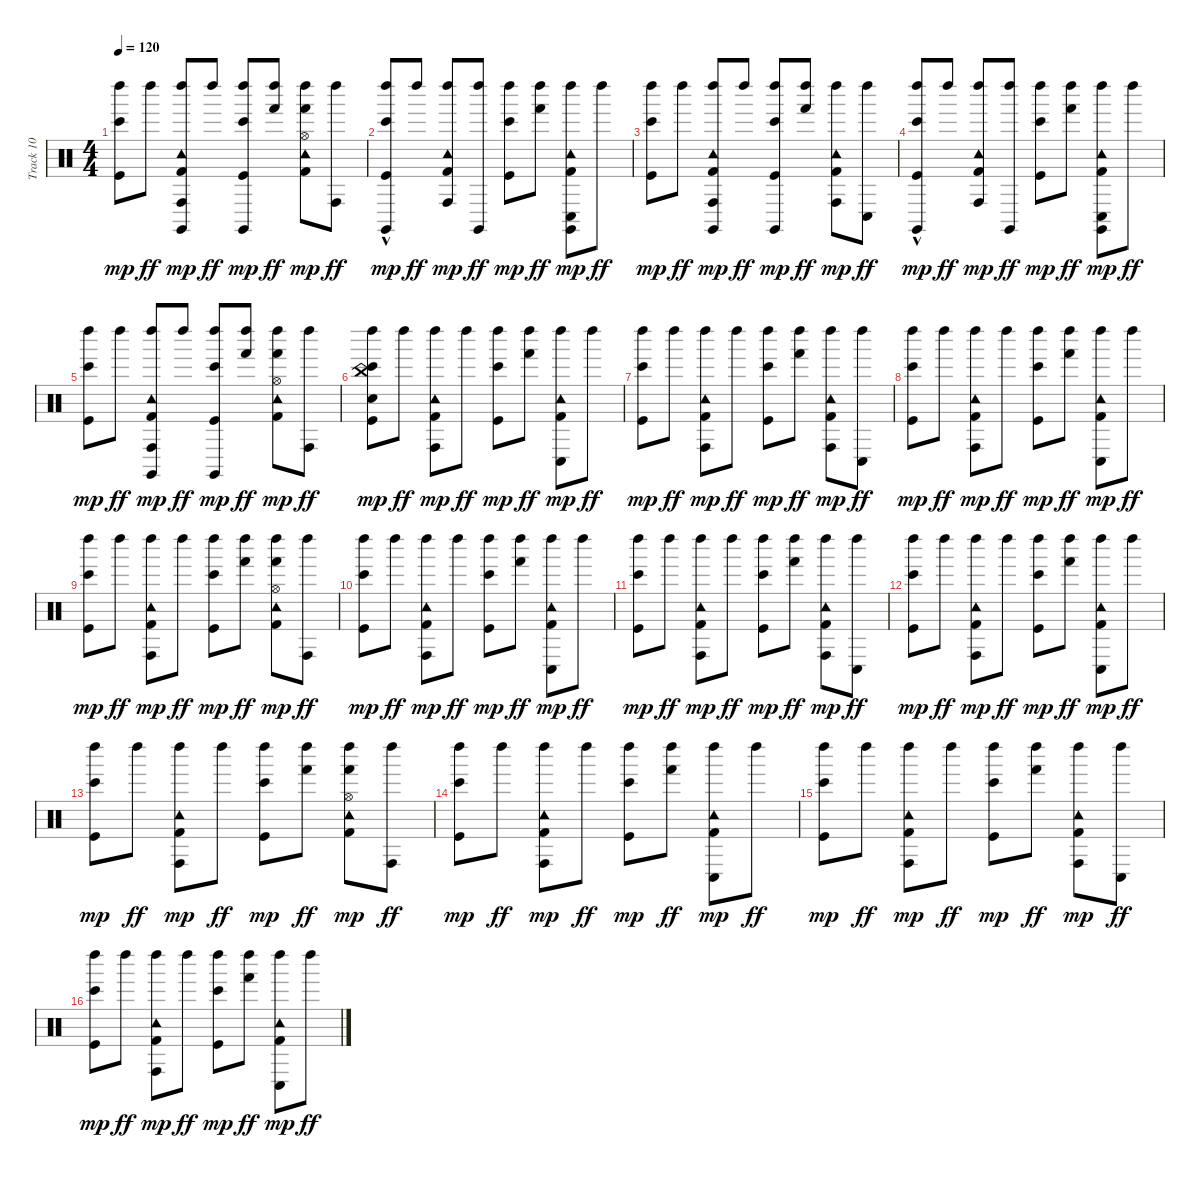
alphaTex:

\track ("Track 10" "Track 10") {instrument percussion}
\staff {score}
\articulation defaults
\ts (4 4)
\tempo 120
\clef neutral
\ks c
("Bongo High (hit)" "Left Maraca (hit)" "Kick (hit)").8{dy mp} "Left Maraca (hit)".8{dy ff} ("Conga high (hit)" "Tambourine (hit)" "Left Maraca (hit)" "Kick (hit) 2" "Claves (hit)").8{dy mp} "Left Maraca (hit)".8{dy ff} ("Bongo High (hit)" "Left Maraca (hit)" "Kick (hit)" "Claves (hit)").8{dy mp} ("Hand (hit)" "Left Maraca (hit)").8{dy ff} ("Hand (hit)" "Hi-Hat (open)" "Tambourine (hit)" "Left Maraca (hit)" "Kick (hit) 2").8{dy mp} ("Conga high (hit)" "Left Maraca (hit)").8{dy ff} |
("Bongo High (hit)" "Left Maraca (hit)" "Kick (hit)" "Claves (hit)"{hac}).8{dy mp} "Left Maraca (hit)".8{dy ff} ("Conga high (hit)" "Tambourine (hit)" "Left Maraca (hit)" "Kick (hit) 2").8{dy mp} ("Left Maraca (hit)" "Claves (hit)").8{dy ff} ("Bongo High (hit)" "Left Maraca (hit)" "Kick (hit)").8{dy mp} ("Hand (hit)" "Left Maraca (hit)").8{dy ff} ("Conga low (hit)" "Tambourine (hit)" "Left Maraca (hit)" "Kick (hit) 2" "Claves (hit)").8{dy mp} "Left Maraca (hit)".8{dy ff} |
("Bongo High (hit)" "Left Maraca (hit)" "Kick (hit)").8{dy mp} "Left Maraca (hit)".8{dy ff} ("Conga high (hit)" "Tambourine (hit)" "Left Maraca (hit)" "Kick (hit) 2" "Claves (hit)").8{dy mp} "Left Maraca (hit)".8{dy ff} ("Bongo High (hit)" "Left Maraca (hit)" "Kick (hit)" "Claves (hit)").8{dy mp} ("Hand (hit)" "Left Maraca (hit)").8{dy ff} ("Conga high (hit)" "Tambourine (hit)" "Left Maraca (hit)" "Kick (hit) 2").8{dy mp} ("Conga low (hit)" "Left Maraca (hit)").8{dy ff} |
("Bongo High (hit)" "Left Maraca (hit)" "Kick (hit)" "Claves (hit)"{hac}).8{dy mp} "Left Maraca (hit)".8{dy ff} ("Conga high (hit)" "Tambourine (hit)" "Left Maraca (hit)" "Kick (hit) 2").8{dy mp} ("Left Maraca (hit)" "Claves (hit)").8{dy ff} ("Bongo High (hit)" "Left Maraca (hit)" "Kick (hit)").8{dy mp} ("Hand (hit)" "Left Maraca (hit)").8{dy ff} ("Conga low (hit)" "Tambourine (hit)" "Left Maraca (hit)" "Kick (hit) 2" "Claves (hit)").8{dy mp} "Left Maraca (hit)".8{dy ff} |
("Bongo High (hit)" "Left Maraca (hit)" "Kick (hit)").8{dy mp} "Left Maraca (hit)".8{dy ff} ("Conga high (hit)" "Tambourine (hit)" "Left Maraca (hit)" "Kick (hit) 2" "Claves (hit)").8{dy mp} "Left Maraca (hit)".8{dy ff} ("Bongo High (hit)" "Left Maraca (hit)" "Kick (hit)" "Claves (hit)").8{dy mp} ("Hand (hit)" "Left Maraca (hit)").8{dy ff} ("Hand (hit)" "Hi-Hat (open)" "Tambourine (hit)" "Left Maraca (hit)" "Kick (hit) 2").8{dy mp} ("Conga high (hit)" "Left Maraca (hit)").8{dy ff} |
("China (hit)" "Electric Snare (hit)" "Bongo High (hit)" "Left Maraca (hit)" "Kick (hit)").8{dy mp} "Left Maraca (hit)".8{dy ff} ("Conga high (hit)" "Tambourine (hit)" "Left Maraca (hit)" "Kick (hit) 2").8{dy mp} "Left Maraca (hit)".8{dy ff} ("Bongo High (hit)" "Left Maraca (hit)" "Kick (hit)").8{dy mp} ("Hand (hit)" "Left Maraca (hit)").8{dy ff} ("Conga low (hit)" "Tambourine (hit)" "Left Maraca (hit)" "Kick (hit) 2").8{dy mp} "Left Maraca (hit)".8{dy ff} |
("Bongo High (hit)" "Left Maraca (hit)" "Kick (hit)").8{dy mp} "Left Maraca (hit)".8{dy ff} ("Conga high (hit)" "Tambourine (hit)" "Left Maraca (hit)" "Kick (hit) 2").8{dy mp} "Left Maraca (hit)".8{dy ff} ("Bongo High (hit)" "Left Maraca (hit)" "Kick (hit)").8{dy mp} ("Hand (hit)" "Left Maraca (hit)").8{dy ff} ("Conga high (hit)" "Tambourine (hit)" "Left Maraca (hit)" "Kick (hit) 2").8{dy mp} ("Conga low (hit)" "Left Maraca (hit)").8{dy ff} |
("Bongo High (hit)" "Left Maraca (hit)" "Kick (hit)").8{dy mp} "Left Maraca (hit)".8{dy ff} ("Conga high (hit)" "Tambourine (hit)" "Left Maraca (hit)" "Kick (hit) 2").8{dy mp} "Left Maraca (hit)".8{dy ff} ("Bongo High (hit)" "Left Maraca (hit)" "Kick (hit)").8{dy mp} ("Hand (hit)" "Left Maraca (hit)").8{dy ff} ("Conga low (hit)" "Tambourine (hit)" "Left Maraca (hit)" "Kick (hit) 2").8{dy mp} "Left Maraca (hit)".8{dy ff} |
("Bongo High (hit)" "Left Maraca (hit)" "Kick (hit)").8{dy mp} "Left Maraca (hit)".8{dy ff} ("Conga high (hit)" "Tambourine (hit)" "Left Maraca (hit)" "Kick (hit) 2").8{dy mp} "Left Maraca (hit)".8{dy ff} ("Bongo High (hit)" "Left Maraca (hit)" "Kick (hit)").8{dy mp} ("Hand (hit)" "Left Maraca (hit)").8{dy ff} ("Hand (hit)" "Hi-Hat (open)" "Tambourine (hit)" "Left Maraca (hit)" "Kick (hit) 2").8{dy mp} ("Conga high (hit)" "Left Maraca (hit)").8{dy ff} |
("Bongo High (hit)" "Left Maraca (hit)" "Kick (hit)").8{dy mp} "Left Maraca (hit)".8{dy ff} ("Conga high (hit)" "Tambourine (hit)" "Left Maraca (hit)" "Kick (hit) 2").8{dy mp} "Left Maraca (hit)".8{dy ff} ("Bongo High (hit)" "Left Maraca (hit)" "Kick (hit)").8{dy mp} ("Hand (hit)" "Left Maraca (hit)").8{dy ff} ("Conga low (hit)" "Tambourine (hit)" "Left Maraca (hit)" "Kick (hit) 2").8{dy mp} "Left Maraca (hit)".8{dy ff} |
("Bongo High (hit)" "Left Maraca (hit)" "Kick (hit)").8{dy mp} "Left Maraca (hit)".8{dy ff} ("Conga high (hit)" "Tambourine (hit)" "Left Maraca (hit)" "Kick (hit) 2").8{dy mp} "Left Maraca (hit)".8{dy ff} ("Bongo High (hit)" "Left Maraca (hit)" "Kick (hit)").8{dy mp} ("Hand (hit)" "Left Maraca (hit)").8{dy ff} ("Conga high (hit)" "Tambourine (hit)" "Left Maraca (hit)" "Kick (hit) 2").8{dy mp} ("Conga low (hit)" "Left Maraca (hit)").8{dy ff} |
("Bongo High (hit)" "Left Maraca (hit)" "Kick (hit)").8{dy mp} "Left Maraca (hit)".8{dy ff} ("Conga high (hit)" "Tambourine (hit)" "Left Maraca (hit)" "Kick (hit) 2").8{dy mp} "Left Maraca (hit)".8{dy ff} ("Bongo High (hit)" "Left Maraca (hit)" "Kick (hit)").8{dy mp} ("Hand (hit)" "Left Maraca (hit)").8{dy ff} ("Conga low (hit)" "Tambourine (hit)" "Left Maraca (hit)" "Kick (hit) 2").8{dy mp} "Left Maraca (hit)".8{dy ff} |
("Bongo High (hit)" "Left Maraca (hit)" "Kick (hit)").8{dy mp} "Left Maraca (hit)".8{dy ff} ("Conga high (hit)" "Tambourine (hit)" "Left Maraca (hit)" "Kick (hit) 2").8{dy mp} "Left Maraca (hit)".8{dy ff} ("Bongo High (hit)" "Left Maraca (hit)" "Kick (hit)").8{dy mp} ("Hand (hit)" "Left Maraca (hit)").8{dy ff} ("Hand (hit)" "Hi-Hat (open)" "Tambourine (hit)" "Left Maraca (hit)" "Kick (hit) 2").8{dy mp} ("Conga high (hit)" "Left Maraca (hit)").8{dy ff} |
("Bongo High (hit)" "Left Maraca (hit)" "Kick (hit)").8{dy mp} "Left Maraca (hit)".8{dy ff} ("Conga high (hit)" "Tambourine (hit)" "Left Maraca (hit)" "Kick (hit) 2").8{dy mp} "Left Maraca (hit)".8{dy ff} ("Bongo High (hit)" "Left Maraca (hit)" "Kick (hit)").8{dy mp} ("Hand (hit)" "Left Maraca (hit)").8{dy ff} ("Conga low (hit)" "Tambourine (hit)" "Left Maraca (hit)" "Kick (hit) 2").8{dy mp} "Left Maraca (hit)".8{dy ff} |
("Bongo High (hit)" "Left Maraca (hit)" "Kick (hit)").8{dy mp} "Left Maraca (hit)".8{dy ff} ("Conga high (hit)" "Tambourine (hit)" "Left Maraca (hit)" "Kick (hit) 2").8{dy mp} "Left Maraca (hit)".8{dy ff} ("Bongo High (hit)" "Left Maraca (hit)" "Kick (hit)").8{dy mp} ("Hand (hit)" "Left Maraca (hit)").8{dy ff} ("Conga high (hit)" "Tambourine (hit)" "Left Maraca (hit)" "Kick (hit) 2").8{dy mp} ("Conga low (hit)" "Left Maraca (hit)").8{dy ff} |
("Bongo High (hit)" "Left Maraca (hit)" "Kick (hit)").8{dy mp} "Left Maraca (hit)".8{dy ff} ("Conga high (hit)" "Tambourine (hit)" "Left Maraca (hit)" "Kick (hit) 2").8{dy mp} "Left Maraca (hit)".8{dy ff} ("Bongo High (hit)" "Left Maraca (hit)" "Kick (hit)").8{dy mp} ("Hand (hit)" "Left Maraca (hit)").8{dy ff} ("Conga low (hit)" "Tambourine (hit)" "Left Maraca (hit)" "Kick (hit) 2").8{dy mp} "Left Maraca (hit)".8{dy ff}
